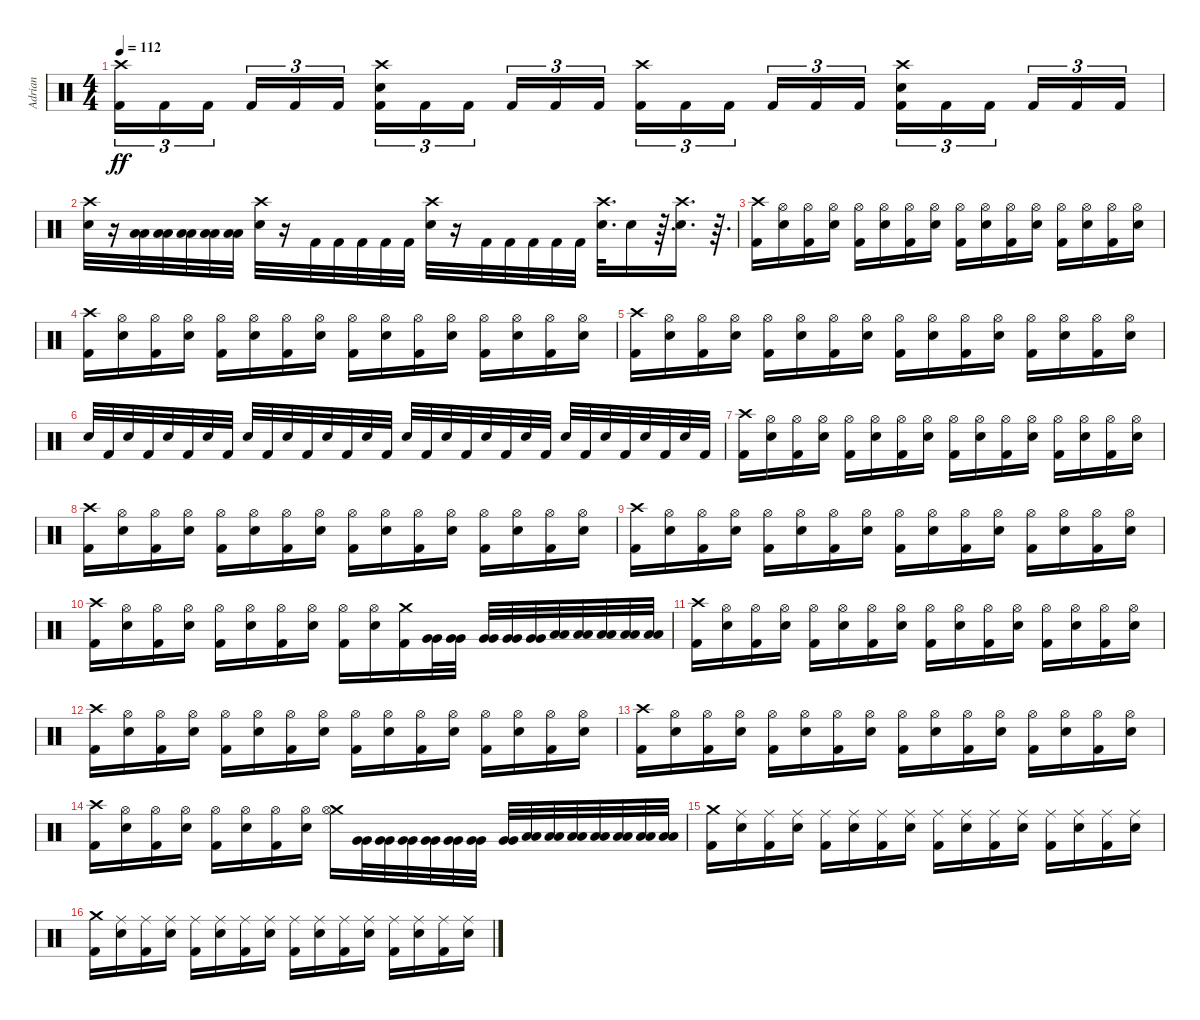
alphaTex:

\track ("Adrian" "Adrian") {instrument percussion}
\staff {score}
\articulation defaults
\ts (4 4)
\tempo 112
\clef neutral
\ks c
("Crash high (hit)" "Kick (hit) 2").16{tu (3 2) dy ff} "Kick (hit) 2".16{tu (3 2)} "Kick (hit) 2".16{tu (3 2) beam splitsecondary} "Kick (hit) 2".16{tu (3 2)} "Kick (hit) 2".16{tu (3 2)} "Kick (hit) 2".16{tu (3 2)} ("Crash high (hit)" "Electric Snare (hit)" "Kick (hit) 2").16{tu (3 2)} "Kick (hit) 2".16{tu (3 2)} "Kick (hit) 2".16{tu (3 2) beam splitsecondary} "Kick (hit) 2".16{tu (3 2)} "Kick (hit) 2".16{tu (3 2)} "Kick (hit) 2".16{tu (3 2)} ("Crash high (hit)" "Kick (hit) 2").16{tu (3 2)} "Kick (hit) 2".16{tu (3 2)} "Kick (hit) 2".16{tu (3 2) beam splitsecondary} "Kick (hit) 2".16{tu (3 2)} "Kick (hit) 2".16{tu (3 2)} "Kick (hit) 2".16{tu (3 2)} ("Crash high (hit)" "Electric Snare (hit)" "Kick (hit) 2").16{tu (3 2)} "Kick (hit) 2".16{tu (3 2)} "Kick (hit) 2".16{tu (3 2) beam splitsecondary} "Kick (hit) 2".16{tu (3 2)} "Kick (hit) 2".16{tu (3 2)} "Kick (hit) 2".16{tu (3 2)} |
("Crash high (hit)" "Electric Snare (hit)").32 r.16 ("Low Floor Tom (hit)" "Low Floor Tom (hit)").32 ("Low Floor Tom (hit)" "Low Floor Tom (hit)").32 ("Low Floor Tom (hit)" "Low Floor Tom (hit)").32 ("Low Floor Tom (hit)" "Low Floor Tom (hit)").32 ("Low Floor Tom (hit)" "Low Floor Tom (hit)").32 ("Crash high (hit)" "Electric Snare (hit)").32 r.16 "Kick (hit) 2".32 "Kick (hit) 2".32 "Kick (hit) 2".32 "Kick (hit) 2".32 "Kick (hit) 2".32 ("Crash high (hit)" "Electric Snare (hit)").32 r.16 "Kick (hit) 2".32 "Kick (hit) 2".32 "Kick (hit) 2".32 "Kick (hit) 2".32 "Kick (hit) 2".32 ("Crash high (hit)" "Electric Snare (hit)").32{d} "Electric Snare (hit)".16 r.64{d} ("Crash high (hit)" "Electric Snare (hit)").16{d} r.64{d} |
("Crash high (hit)" "Kick (hit) 2").16 ("Hi-Hat (open)" "Electric Snare (hit)").16 ("Hi-Hat (open)" "Kick (hit) 2").16 ("Hi-Hat (open)" "Electric Snare (hit)").16 ("Hi-Hat (open)" "Kick (hit) 2").16 ("Hi-Hat (open)" "Electric Snare (hit)").16 ("Hi-Hat (open)" "Kick (hit) 2").16 ("Hi-Hat (open)" "Electric Snare (hit)").16 ("Hi-Hat (open)" "Kick (hit) 2").16 ("Hi-Hat (open)" "Electric Snare (hit)").16 ("Hi-Hat (open)" "Kick (hit) 2").16 ("Hi-Hat (open)" "Electric Snare (hit)").16 ("Hi-Hat (open)" "Kick (hit) 2").16 ("Hi-Hat (open)" "Electric Snare (hit)").16 ("Hi-Hat (open)" "Kick (hit) 2").16 ("Hi-Hat (open)" "Electric Snare (hit)").16 |
("Crash high (hit)" "Kick (hit) 2").16 ("Hi-Hat (open)" "Electric Snare (hit)").16 ("Hi-Hat (open)" "Kick (hit) 2").16 ("Hi-Hat (open)" "Electric Snare (hit)").16 ("Hi-Hat (open)" "Kick (hit) 2").16 ("Hi-Hat (open)" "Electric Snare (hit)").16 ("Hi-Hat (open)" "Kick (hit) 2").16 ("Hi-Hat (open)" "Electric Snare (hit)").16 ("Hi-Hat (open)" "Kick (hit) 2").16 ("Hi-Hat (open)" "Electric Snare (hit)").16 ("Hi-Hat (open)" "Kick (hit) 2").16 ("Hi-Hat (open)" "Electric Snare (hit)").16 ("Hi-Hat (open)" "Kick (hit) 2").16 ("Hi-Hat (open)" "Electric Snare (hit)").16 ("Hi-Hat (open)" "Kick (hit) 2").16 ("Hi-Hat (open)" "Electric Snare (hit)").16 |
("Crash high (hit)" "Kick (hit) 2").16 ("Hi-Hat (open)" "Electric Snare (hit)").16 ("Hi-Hat (open)" "Kick (hit) 2").16 ("Hi-Hat (open)" "Electric Snare (hit)").16 ("Hi-Hat (open)" "Kick (hit) 2").16 ("Hi-Hat (open)" "Electric Snare (hit)").16 ("Hi-Hat (open)" "Kick (hit) 2").16 ("Hi-Hat (open)" "Electric Snare (hit)").16 ("Hi-Hat (open)" "Kick (hit) 2").16 ("Hi-Hat (open)" "Electric Snare (hit)").16 ("Hi-Hat (open)" "Kick (hit) 2").16 ("Hi-Hat (open)" "Electric Snare (hit)").16 ("Hi-Hat (open)" "Kick (hit) 2").16 ("Hi-Hat (open)" "Electric Snare (hit)").16 ("Hi-Hat (open)" "Kick (hit) 2").16 ("Hi-Hat (open)" "Electric Snare (hit)").16 |
"Electric Snare (hit)".32 "Kick (hit) 2".32 "Electric Snare (hit)".32 "Kick (hit) 2".32 "Electric Snare (hit)".32 "Kick (hit) 2".32 "Electric Snare (hit)".32 "Kick (hit) 2".32 "Electric Snare (hit)".32 "Kick (hit) 2".32 "Electric Snare (hit)".32 "Kick (hit) 2".32 "Electric Snare (hit)".32 "Kick (hit) 2".32 "Electric Snare (hit)".32 "Kick (hit) 2".32 "Electric Snare (hit)".32 "Kick (hit) 2".32 "Electric Snare (hit)".32 "Kick (hit) 2".32 "Electric Snare (hit)".32 "Kick (hit) 2".32 "Electric Snare (hit)".32 "Kick (hit) 2".32 "Electric Snare (hit)".32 "Kick (hit) 2".32 "Electric Snare (hit)".32 "Kick (hit) 2".32 "Electric Snare (hit)".32 "Kick (hit) 2".32 "Electric Snare (hit)".32 "Kick (hit) 2".32 |
("Crash high (hit)" "Kick (hit) 2").16 ("Hi-Hat (open)" "Electric Snare (hit)").16 ("Hi-Hat (open)" "Kick (hit) 2").16 ("Hi-Hat (open)" "Electric Snare (hit)").16 ("Hi-Hat (open)" "Kick (hit) 2").16 ("Hi-Hat (open)" "Electric Snare (hit)").16 ("Hi-Hat (open)" "Kick (hit) 2").16 ("Hi-Hat (open)" "Electric Snare (hit)").16 ("Hi-Hat (open)" "Kick (hit) 2").16 ("Hi-Hat (open)" "Electric Snare (hit)").16 ("Hi-Hat (open)" "Kick (hit) 2").16 ("Hi-Hat (open)" "Electric Snare (hit)").16 ("Hi-Hat (open)" "Kick (hit) 2").16 ("Hi-Hat (open)" "Electric Snare (hit)").16 ("Hi-Hat (open)" "Kick (hit) 2").16 ("Hi-Hat (open)" "Electric Snare (hit)").16 |
("Crash high (hit)" "Kick (hit) 2").16 ("Hi-Hat (open)" "Electric Snare (hit)").16 ("Hi-Hat (open)" "Kick (hit) 2").16 ("Hi-Hat (open)" "Electric Snare (hit)").16 ("Hi-Hat (open)" "Kick (hit) 2").16 ("Hi-Hat (open)" "Electric Snare (hit)").16 ("Hi-Hat (open)" "Kick (hit) 2").16 ("Hi-Hat (open)" "Electric Snare (hit)").16 ("Hi-Hat (open)" "Kick (hit) 2").16 ("Hi-Hat (open)" "Electric Snare (hit)").16 ("Hi-Hat (open)" "Kick (hit) 2").16 ("Hi-Hat (open)" "Electric Snare (hit)").16 ("Hi-Hat (open)" "Kick (hit) 2").16 ("Hi-Hat (open)" "Electric Snare (hit)").16 ("Hi-Hat (open)" "Kick (hit) 2").16 ("Hi-Hat (open)" "Electric Snare (hit)").16 |
("Crash high (hit)" "Kick (hit) 2").16 ("Hi-Hat (open)" "Electric Snare (hit)").16 ("Hi-Hat (open)" "Kick (hit) 2").16 ("Hi-Hat (open)" "Electric Snare (hit)").16 ("Hi-Hat (open)" "Kick (hit) 2").16 ("Hi-Hat (open)" "Electric Snare (hit)").16 ("Hi-Hat (open)" "Kick (hit) 2").16 ("Hi-Hat (open)" "Electric Snare (hit)").16 ("Hi-Hat (open)" "Kick (hit) 2").16 ("Hi-Hat (open)" "Electric Snare (hit)").16 ("Hi-Hat (open)" "Kick (hit) 2").16 ("Hi-Hat (open)" "Electric Snare (hit)").16 ("Hi-Hat (open)" "Kick (hit) 2").16 ("Hi-Hat (open)" "Electric Snare (hit)").16 ("Hi-Hat (open)" "Kick (hit) 2").16 ("Hi-Hat (open)" "Electric Snare (hit)").16 |
("Crash high (hit)" "Kick (hit) 2").16 ("Hi-Hat (open)" "Electric Snare (hit)").16 ("Hi-Hat (open)" "Kick (hit) 2").16 ("Hi-Hat (open)" "Electric Snare (hit)").16 ("Hi-Hat (open)" "Kick (hit) 2").16 ("Hi-Hat (open)" "Electric Snare (hit)").16 ("Hi-Hat (open)" "Kick (hit) 2").16 ("Hi-Hat (open)" "Electric Snare (hit)").16 ("Hi-Hat (open)" "Kick (hit) 2").16 ("Hi-Hat (open)" "Electric Snare (hit)").16 ("Crash medium (hit)" "Kick (hit) 2").16 ("Very Low Tom (hit)" "Very Low Tom (hit)").32 ("Very Low Tom (hit)" "Very Low Tom (hit)").32 ("Very Low Tom (hit)" "Very Low Tom (hit)").32 ("Very Low Tom (hit)" "Very Low Tom (hit)").32 ("Very Low Tom (hit)" "Very Low Tom (hit)").32 ("Low Floor Tom (hit)" "Low Floor Tom (hit)").32 ("Low Floor Tom (hit)" "Low Floor Tom (hit)").32 ("Low Floor Tom (hit)" "Low Floor Tom (hit)").32 ("Low Floor Tom (hit)" "Low Floor Tom (hit)").32 ("Low Floor Tom (hit)" "Low Floor Tom (hit)").32 |
("Crash high (hit)" "Kick (hit) 2").16 ("Hi-Hat (open)" "Electric Snare (hit)").16 ("Hi-Hat (open)" "Kick (hit) 2").16 ("Hi-Hat (open)" "Electric Snare (hit)").16 ("Hi-Hat (open)" "Kick (hit) 2").16 ("Hi-Hat (open)" "Electric Snare (hit)").16 ("Hi-Hat (open)" "Kick (hit) 2").16 ("Hi-Hat (open)" "Electric Snare (hit)").16 ("Hi-Hat (open)" "Kick (hit) 2").16 ("Hi-Hat (open)" "Electric Snare (hit)").16 ("Hi-Hat (open)" "Kick (hit) 2").16 ("Hi-Hat (open)" "Electric Snare (hit)").16 ("Hi-Hat (open)" "Kick (hit) 2").16 ("Hi-Hat (open)" "Electric Snare (hit)").16 ("Hi-Hat (open)" "Kick (hit) 2").16 ("Hi-Hat (open)" "Electric Snare (hit)").16 |
("Crash high (hit)" "Kick (hit) 2").16 ("Hi-Hat (open)" "Electric Snare (hit)").16 ("Hi-Hat (open)" "Kick (hit) 2").16 ("Hi-Hat (open)" "Electric Snare (hit)").16 ("Hi-Hat (open)" "Kick (hit) 2").16 ("Hi-Hat (open)" "Electric Snare (hit)").16 ("Hi-Hat (open)" "Kick (hit) 2").16 ("Hi-Hat (open)" "Electric Snare (hit)").16 ("Hi-Hat (open)" "Kick (hit) 2").16 ("Hi-Hat (open)" "Electric Snare (hit)").16 ("Hi-Hat (open)" "Kick (hit) 2").16 ("Hi-Hat (open)" "Electric Snare (hit)").16 ("Hi-Hat (open)" "Kick (hit) 2").16 ("Hi-Hat (open)" "Electric Snare (hit)").16 ("Hi-Hat (open)" "Kick (hit) 2").16 ("Hi-Hat (open)" "Electric Snare (hit)").16 |
("Crash high (hit)" "Kick (hit) 2").16 ("Hi-Hat (open)" "Electric Snare (hit)").16 ("Hi-Hat (open)" "Kick (hit) 2").16 ("Hi-Hat (open)" "Electric Snare (hit)").16 ("Hi-Hat (open)" "Kick (hit) 2").16 ("Hi-Hat (open)" "Electric Snare (hit)").16 ("Hi-Hat (open)" "Kick (hit) 2").16 ("Hi-Hat (open)" "Electric Snare (hit)").16 ("Hi-Hat (open)" "Kick (hit) 2").16 ("Hi-Hat (open)" "Electric Snare (hit)").16 ("Hi-Hat (open)" "Kick (hit) 2").16 ("Hi-Hat (open)" "Electric Snare (hit)").16 ("Hi-Hat (open)" "Kick (hit) 2").16 ("Hi-Hat (open)" "Electric Snare (hit)").16 ("Hi-Hat (open)" "Kick (hit) 2").16 ("Hi-Hat (open)" "Electric Snare (hit)").16 |
("Crash high (hit)" "Kick (hit) 2").16 ("Hi-Hat (open)" "Electric Snare (hit)").16 ("Hi-Hat (open)" "Kick (hit) 2").16 ("Hi-Hat (open)" "Electric Snare (hit)").16 ("Hi-Hat (open)" "Kick (hit) 2").16 ("Hi-Hat (open)" "Electric Snare (hit)").16 ("Hi-Hat (open)" "Kick (hit) 2").16 ("Hi-Hat (open)" "Electric Snare (hit)").16 ("Crash medium (hit)" "Hi-Hat (open)").16 ("Very Low Tom (hit)" "Very Low Tom (hit)").32 ("Very Low Tom (hit)" "Very Low Tom (hit)").32 ("Very Low Tom (hit)" "Very Low Tom (hit)").32 ("Very Low Tom (hit)" "Very Low Tom (hit)").32 ("Very Low Tom (hit)" "Very Low Tom (hit)").32 ("Very Low Tom (hit)" "Very Low Tom (hit)").32 ("Very Low Tom (hit)" "Very Low Tom (hit)").32 ("Low Floor Tom (hit)" "Low Floor Tom (hit)").32 ("Low Floor Tom (hit)" "Low Floor Tom (hit)").32 ("Low Floor Tom (hit)" "Low Floor Tom (hit)").32 ("Low Floor Tom (hit)" "Low Floor Tom (hit)").32 ("Low Floor Tom (hit)" "Low Floor Tom (hit)").32 ("Low Floor Tom (hit)" "Low Floor Tom (hit)").32 ("Low Floor Tom (hit)" "Low Floor Tom (hit)").32 |
("Crash medium (hit)" "Kick (hit) 2").16 ("Ride (middle)" "Electric Snare (hit)").16 ("Ride (middle)" "Kick (hit) 2").16 ("Ride (middle)" "Electric Snare (hit)").16 ("Ride (middle)" "Kick (hit) 2").16 ("Ride (middle)" "Electric Snare (hit)").16 ("Ride (middle)" "Kick (hit) 2").16 ("Ride (middle)" "Electric Snare (hit)").16 ("Ride (middle)" "Kick (hit) 2").16 ("Ride (middle)" "Electric Snare (hit)").16 ("Ride (middle)" "Kick (hit) 2").16 ("Ride (middle)" "Electric Snare (hit)").16 ("Ride (middle)" "Kick (hit) 2").16 ("Ride (middle)" "Electric Snare (hit)").16 ("Ride (middle)" "Kick (hit) 2").16 ("Ride (middle)" "Electric Snare (hit)").16 |
("Crash medium (hit)" "Kick (hit) 2").16 ("Ride (middle)" "Electric Snare (hit)").16 ("Ride (middle)" "Kick (hit) 2").16 ("Ride (middle)" "Electric Snare (hit)").16 ("Ride (middle)" "Kick (hit) 2").16 ("Ride (middle)" "Electric Snare (hit)").16 ("Ride (middle)" "Kick (hit) 2").16 ("Ride (middle)" "Electric Snare (hit)").16 ("Ride (middle)" "Kick (hit) 2").16 ("Ride (middle)" "Electric Snare (hit)").16 ("Ride (middle)" "Kick (hit) 2").16 ("Ride (middle)" "Electric Snare (hit)").16 ("Ride (middle)" "Kick (hit) 2").16 ("Ride (middle)" "Electric Snare (hit)").16 ("Ride (middle)" "Kick (hit) 2").16 ("Ride (middle)" "Electric Snare (hit)").16
